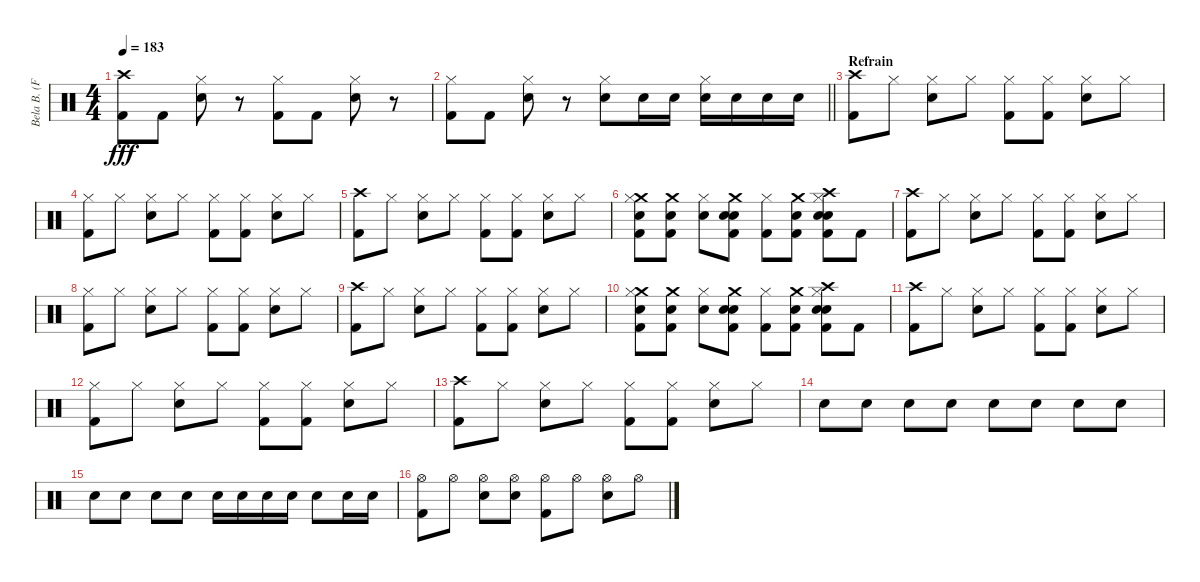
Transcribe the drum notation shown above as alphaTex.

\track ("Bela B. (Felsenheimer)" "Bela B. (F") {instrument percussion}
\staff {score}
\articulation defaults
\ts (4 4)
\tempo 183
\clef neutral
\ks c
("Crash high (hit)" "Kick (hit) 2").8{dy fff} "Kick (hit) 2".8 ("Hi-Hat (closed)" "Snare (hit) 2").8 r.8 ("Hi-Hat (closed)" "Kick (hit) 2").8 "Kick (hit) 2".8 ("Hi-Hat (closed)" "Snare (hit) 2").8 r.8 |
\barLineRight lightlight
("Hi-Hat (closed)" "Kick (hit) 2").8 "Kick (hit) 2".8 ("Hi-Hat (closed)" "Snare (hit) 2").8 r.8 ("Hi-Hat (closed)" "Snare (hit) 2").8 "Snare (hit) 2".16 "Snare (hit) 2".16 ("Hi-Hat (closed)" "Snare (hit) 2").16 "Snare (hit) 2".16 "Snare (hit) 2".16 "Snare (hit) 2".16 |
\section ("" "Refrain")
("Kick (hit) 2" "Crash high (hit)").8 "Hi-Hat (closed)".8 ("Snare (hit) 2" "Hi-Hat (closed)").8 "Hi-Hat (closed)".8 ("Kick (hit) 2" "Hi-Hat (closed)").8 ("Kick (hit) 2" "Hi-Hat (closed)").8 ("Snare (hit) 2" "Hi-Hat (closed)").8 "Hi-Hat (closed)".8 |
("Kick (hit) 2" "Hi-Hat (closed)").8 "Hi-Hat (closed)".8 ("Snare (hit) 2" "Hi-Hat (closed)").8 "Hi-Hat (closed)".8 ("Kick (hit) 2" "Hi-Hat (closed)").8 ("Kick (hit) 2" "Hi-Hat (closed)").8 ("Snare (hit) 2" "Hi-Hat (closed)").8 "Hi-Hat (closed)".8 |
("Kick (hit) 2" "Crash high (hit)").8 "Hi-Hat (closed)".8 ("Snare (hit) 2" "Hi-Hat (closed)").8 "Hi-Hat (closed)".8 ("Kick (hit) 2" "Hi-Hat (closed)").8 ("Kick (hit) 2" "Hi-Hat (closed)").8 ("Snare (hit) 2" "Hi-Hat (closed)").8 "Hi-Hat (closed)".8 |
("Crash medium (hit)" "Electric Snare (hit)" "Kick (hit) 2" "Hi-Hat (closed)").8 ("Crash medium (hit)" "Snare (hit) 2" "Kick (hit) 2").8 ("Snare (hit) 2" "Hi-Hat (closed)").8 ("Snare (hit) 2" "Electric Snare (hit)" "Kick (hit) 2" "Crash medium (hit)").8 ("Kick (hit) 2" "Hi-Hat (closed)").8 ("Crash medium (hit)" "Electric Snare (hit)" "Kick (hit) 2").8 ("Electric Snare (hit)" "Snare (hit) 2" "Kick (hit) 2" "Crash high (hit)" "Hi-Hat (closed)").8 "Kick (hit) 2".8 |
("Kick (hit) 2" "Crash high (hit)").8 "Hi-Hat (closed)".8 ("Snare (hit) 2" "Hi-Hat (closed)").8 "Hi-Hat (closed)".8 ("Kick (hit) 2" "Hi-Hat (closed)").8 ("Kick (hit) 2" "Hi-Hat (closed)").8 ("Snare (hit) 2" "Hi-Hat (closed)").8 "Hi-Hat (closed)".8 |
("Kick (hit) 2" "Hi-Hat (closed)").8 "Hi-Hat (closed)".8 ("Snare (hit) 2" "Hi-Hat (closed)").8 "Hi-Hat (closed)".8 ("Kick (hit) 2" "Hi-Hat (closed)").8 ("Kick (hit) 2" "Hi-Hat (closed)").8 ("Snare (hit) 2" "Hi-Hat (closed)").8 "Hi-Hat (closed)".8 |
("Kick (hit) 2" "Crash high (hit)").8 "Hi-Hat (closed)".8 ("Snare (hit) 2" "Hi-Hat (closed)").8 "Hi-Hat (closed)".8 ("Kick (hit) 2" "Hi-Hat (closed)").8 ("Kick (hit) 2" "Hi-Hat (closed)").8 ("Snare (hit) 2" "Hi-Hat (closed)").8 "Hi-Hat (closed)".8 |
("Crash medium (hit)" "Electric Snare (hit)" "Kick (hit) 2" "Hi-Hat (closed)").8 ("Crash medium (hit)" "Snare (hit) 2" "Kick (hit) 2").8 ("Snare (hit) 2" "Hi-Hat (closed)").8 ("Snare (hit) 2" "Electric Snare (hit)" "Kick (hit) 2" "Crash medium (hit)").8 ("Kick (hit) 2" "Hi-Hat (closed)").8 ("Crash medium (hit)" "Electric Snare (hit)" "Kick (hit) 2").8 ("Electric Snare (hit)" "Snare (hit) 2" "Kick (hit) 2" "Crash high (hit)" "Hi-Hat (closed)").8 "Kick (hit) 2".8 |
("Kick (hit) 2" "Crash high (hit)").8 "Hi-Hat (closed)".8 ("Snare (hit) 2" "Hi-Hat (closed)").8 "Hi-Hat (closed)".8 ("Kick (hit) 2" "Hi-Hat (closed)").8 ("Kick (hit) 2" "Hi-Hat (closed)").8 ("Snare (hit) 2" "Hi-Hat (closed)").8 "Hi-Hat (closed)".8 |
("Kick (hit) 2" "Hi-Hat (closed)").8 "Hi-Hat (closed)".8 ("Snare (hit) 2" "Hi-Hat (closed)").8 "Hi-Hat (closed)".8 ("Kick (hit) 2" "Hi-Hat (closed)").8 ("Kick (hit) 2" "Hi-Hat (closed)").8 ("Snare (hit) 2" "Hi-Hat (closed)").8 "Hi-Hat (closed)".8 |
("Kick (hit) 2" "Crash high (hit)").8 "Hi-Hat (closed)".8 ("Snare (hit) 2" "Hi-Hat (closed)").8 "Hi-Hat (closed)".8 ("Kick (hit) 2" "Hi-Hat (closed)").8 ("Kick (hit) 2" "Hi-Hat (closed)").8 ("Snare (hit) 2" "Hi-Hat (closed)").8 "Hi-Hat (closed)".8 |
"Snare (hit) 2".8 "Snare (hit) 2".8 "Snare (hit) 2".8 "Snare (hit) 2".8 "Snare (hit) 2".8 "Snare (hit) 2".8 "Snare (hit) 2".8 "Snare (hit) 2".8 |
"Snare (hit) 2".8 "Snare (hit) 2".8 "Snare (hit) 2".8 "Snare (hit) 2".8 "Snare (hit) 2".16 "Snare (hit) 2".16 "Snare (hit) 2".16 "Snare (hit) 2".16 "Snare (hit) 2".8 "Snare (hit) 2".16 "Snare (hit) 2".16 |
("Hi-Hat (open)" "Kick (hit) 2").8 "Hi-Hat (open)".8 ("Hi-Hat (open)" "Snare (hit) 2").8 ("Hi-Hat (open)" "Snare (hit) 2").8 ("Hi-Hat (open)" "Kick (hit) 2").8 "Hi-Hat (open)".8 ("Hi-Hat (open)" "Snare (hit) 2").8 "Hi-Hat (open)".8
